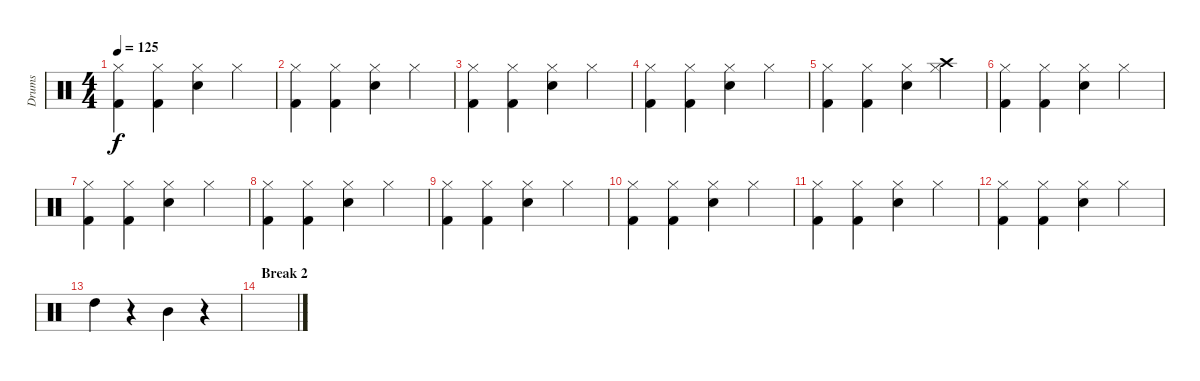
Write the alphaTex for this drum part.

\track ("Drums" "Drums") {instrument percussion}
\staff {score}
\articulation defaults
\ts (4 4)
\tempo 125
\clef neutral
\ks c
("Hi-Hat (closed)" "Kick (hit) 2").4{dy f} ("Hi-Hat (closed)" "Kick (hit) 2").4 ("Hi-Hat (closed)" "Snare (hit) 2").4 "Hi-Hat (closed)".4 |
("Hi-Hat (closed)" "Kick (hit) 2").4 ("Hi-Hat (closed)" "Kick (hit) 2").4 ("Hi-Hat (closed)" "Snare (hit) 2").4 "Hi-Hat (closed)".4 |
("Hi-Hat (closed)" "Kick (hit) 2").4 ("Hi-Hat (closed)" "Kick (hit) 2").4 ("Hi-Hat (closed)" "Snare (hit) 2").4 "Hi-Hat (closed)".4 |
("Hi-Hat (closed)" "Kick (hit) 2").4 ("Hi-Hat (closed)" "Kick (hit) 2").4 ("Hi-Hat (closed)" "Snare (hit) 2").4 "Hi-Hat (closed)".4 |
("Hi-Hat (closed)" "Kick (hit) 2").4 ("Hi-Hat (closed)" "Kick (hit) 2").4 ("Hi-Hat (closed)" "Snare (hit) 2").4 ("Hi-Hat (closed)" "Crash high (hit)").4 |
("Hi-Hat (closed)" "Kick (hit) 2").4 ("Hi-Hat (closed)" "Kick (hit) 2").4 ("Hi-Hat (closed)" "Snare (hit) 2").4 "Hi-Hat (closed)".4 |
("Hi-Hat (closed)" "Kick (hit) 2").4 ("Hi-Hat (closed)" "Kick (hit) 2").4 ("Hi-Hat (closed)" "Snare (hit) 2").4 "Hi-Hat (closed)".4 |
("Hi-Hat (closed)" "Kick (hit) 2").4 ("Hi-Hat (closed)" "Kick (hit) 2").4 ("Hi-Hat (closed)" "Snare (hit) 2").4 "Hi-Hat (closed)".4 |
("Hi-Hat (closed)" "Kick (hit) 2").4 ("Hi-Hat (closed)" "Kick (hit) 2").4 ("Hi-Hat (closed)" "Snare (hit) 2").4 "Hi-Hat (closed)".4 |
("Hi-Hat (closed)" "Kick (hit) 2").4 ("Hi-Hat (closed)" "Kick (hit) 2").4 ("Hi-Hat (closed)" "Snare (hit) 2").4 "Hi-Hat (closed)".4 |
("Hi-Hat (closed)" "Kick (hit) 2").4 ("Hi-Hat (closed)" "Kick (hit) 2").4 ("Hi-Hat (closed)" "Snare (hit) 2").4 "Hi-Hat (closed)".4 |
("Hi-Hat (closed)" "Kick (hit) 2").4 ("Hi-Hat (closed)" "Kick (hit) 2").4 ("Hi-Hat (closed)" "Snare (hit) 2").4 "Hi-Hat (closed)".4 |
"High Tom (hit)".4 r.4 "Mid Tom (hit)".4 r.4 |
\section ("" "Break 2")
